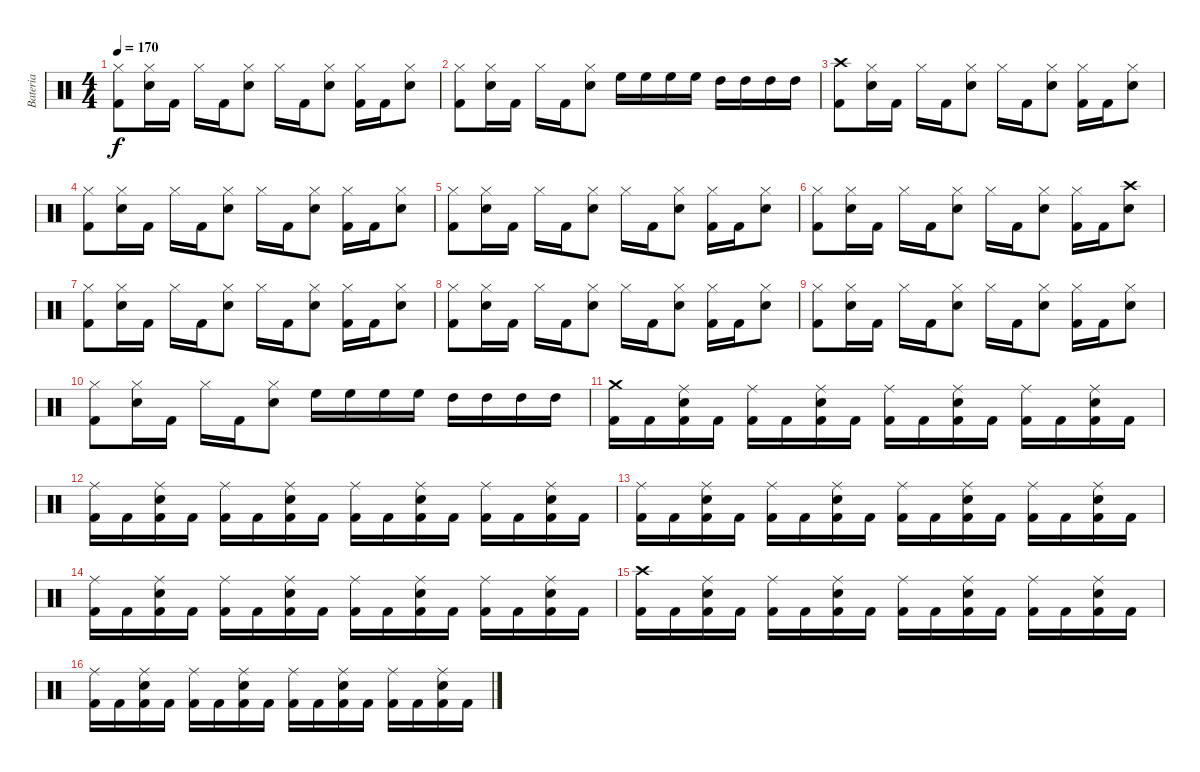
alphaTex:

\track ("Bateria" "Bateria") {instrument percussion}
\staff {score}
\articulation defaults
\ts (4 4)
\tempo 170
\clef neutral
\ks c
("Hi-Hat (closed)" "Kick (hit) 2").8{dy f} ("Hi-Hat (closed)" "Snare (hit) 2").16 "Kick (hit) 2".16 "Hi-Hat (closed)".16 "Kick (hit) 2".16 ("Hi-Hat (closed)" "Snare (hit) 2").8 "Hi-Hat (closed)".16 "Kick (hit) 2".16 ("Hi-Hat (closed)" "Snare (hit) 2").8 ("Hi-Hat (closed)" "Kick (hit) 2").16 "Kick (hit) 2".16 ("Hi-Hat (closed)" "Snare (hit) 2").8 |
("Hi-Hat (closed)" "Kick (hit) 2").8 ("Hi-Hat (closed)" "Snare (hit) 2").16 "Kick (hit) 2".16 "Hi-Hat (closed)".16 "Kick (hit) 2".16 ("Hi-Hat (closed)" "Snare (hit) 2").8 "High Floor Tom (hit)".16 "High Floor Tom (hit)".16 "High Floor Tom (hit)".16 "High Floor Tom (hit)".16 "High Tom (hit)".16 "High Tom (hit)".16 "High Tom (hit)".16 "High Tom (hit)".16 |
("Crash high (hit)" "Kick (hit) 2").8 ("Hi-Hat (closed)" "Snare (hit) 2").16 "Kick (hit) 2".16 "Hi-Hat (closed)".16 "Kick (hit) 2".16 ("Hi-Hat (closed)" "Snare (hit) 2").8 "Hi-Hat (closed)".16 "Kick (hit) 2".16 ("Hi-Hat (closed)" "Snare (hit) 2").8 ("Hi-Hat (closed)" "Kick (hit) 2").16 "Kick (hit) 2".16 ("Hi-Hat (closed)" "Snare (hit) 2").8 |
("Hi-Hat (closed)" "Kick (hit) 2").8 ("Hi-Hat (closed)" "Snare (hit) 2").16 "Kick (hit) 2".16 "Hi-Hat (closed)".16 "Kick (hit) 2".16 ("Hi-Hat (closed)" "Snare (hit) 2").8 "Hi-Hat (closed)".16 "Kick (hit) 2".16 ("Hi-Hat (closed)" "Snare (hit) 2").8 ("Hi-Hat (closed)" "Kick (hit) 2").16 "Kick (hit) 2".16 ("Hi-Hat (closed)" "Snare (hit) 2").8 |
("Hi-Hat (closed)" "Kick (hit) 2").8 ("Hi-Hat (closed)" "Snare (hit) 2").16 "Kick (hit) 2".16 "Hi-Hat (closed)".16 "Kick (hit) 2".16 ("Hi-Hat (closed)" "Snare (hit) 2").8 "Hi-Hat (closed)".16 "Kick (hit) 2".16 ("Hi-Hat (closed)" "Snare (hit) 2").8 ("Hi-Hat (closed)" "Kick (hit) 2").16 "Kick (hit) 2".16 ("Hi-Hat (closed)" "Snare (hit) 2").8 |
("Hi-Hat (closed)" "Kick (hit) 2").8 ("Hi-Hat (closed)" "Snare (hit) 2").16 "Kick (hit) 2".16 "Hi-Hat (closed)".16 "Kick (hit) 2".16 ("Hi-Hat (closed)" "Snare (hit) 2").8 "Hi-Hat (closed)".16 "Kick (hit) 2".16 ("Hi-Hat (closed)" "Snare (hit) 2").8 ("Hi-Hat (closed)" "Kick (hit) 2").16 "Kick (hit) 2".16 ("Crash high (hit)" "Snare (hit) 2").8 |
("Hi-Hat (closed)" "Kick (hit) 2").8 ("Hi-Hat (closed)" "Snare (hit) 2").16 "Kick (hit) 2".16 "Hi-Hat (closed)".16 "Kick (hit) 2".16 ("Hi-Hat (closed)" "Snare (hit) 2").8 "Hi-Hat (closed)".16 "Kick (hit) 2".16 ("Hi-Hat (closed)" "Snare (hit) 2").8 ("Hi-Hat (closed)" "Kick (hit) 2").16 "Kick (hit) 2".16 ("Hi-Hat (closed)" "Snare (hit) 2").8 |
("Hi-Hat (closed)" "Kick (hit) 2").8 ("Hi-Hat (closed)" "Snare (hit) 2").16 "Kick (hit) 2".16 "Hi-Hat (closed)".16 "Kick (hit) 2".16 ("Hi-Hat (closed)" "Snare (hit) 2").8 "Hi-Hat (closed)".16 "Kick (hit) 2".16 ("Hi-Hat (closed)" "Snare (hit) 2").8 ("Hi-Hat (closed)" "Kick (hit) 2").16 "Kick (hit) 2".16 ("Hi-Hat (closed)" "Snare (hit) 2").8 |
("Hi-Hat (closed)" "Kick (hit) 2").8 ("Hi-Hat (closed)" "Snare (hit) 2").16 "Kick (hit) 2".16 "Hi-Hat (closed)".16 "Kick (hit) 2".16 ("Hi-Hat (closed)" "Snare (hit) 2").8 "Hi-Hat (closed)".16 "Kick (hit) 2".16 ("Hi-Hat (closed)" "Snare (hit) 2").8 ("Hi-Hat (closed)" "Kick (hit) 2").16 "Kick (hit) 2".16 ("Hi-Hat (closed)" "Snare (hit) 2").8 |
("Hi-Hat (closed)" "Kick (hit) 2").8 ("Hi-Hat (closed)" "Snare (hit) 2").16 "Kick (hit) 2".16 "Hi-Hat (closed)".16 "Kick (hit) 2".16 ("Hi-Hat (closed)" "Snare (hit) 2").8 "High Floor Tom (hit)".16 "High Floor Tom (hit)".16 "High Floor Tom (hit)".16 "High Floor Tom (hit)".16 "High Tom (hit)".16 "High Tom (hit)".16 "High Tom (hit)".16 "High Tom (hit)".16 |
("Crash medium (hit)" "Kick (hit) 2").16 "Kick (hit) 2".16 ("Ride (middle)" "Kick (hit) 2" "Snare (hit) 2").16 "Kick (hit) 2".16 ("Ride (middle)" "Kick (hit) 2").16 "Kick (hit) 2".16 ("Ride (middle)" "Kick (hit) 2" "Snare (hit) 2").16 "Kick (hit) 2".16 ("Ride (middle)" "Kick (hit) 2").16 "Kick (hit) 2".16 ("Ride (middle)" "Kick (hit) 2" "Snare (hit) 2").16 "Kick (hit) 2".16 ("Ride (middle)" "Kick (hit) 2").16 "Kick (hit) 2".16 ("Ride (middle)" "Kick (hit) 2" "Snare (hit) 2").16 "Kick (hit) 2".16 |
("Ride (middle)" "Kick (hit) 2").16 "Kick (hit) 2".16 ("Ride (middle)" "Kick (hit) 2" "Snare (hit) 2").16 "Kick (hit) 2".16 ("Ride (middle)" "Kick (hit) 2").16 "Kick (hit) 2".16 ("Ride (middle)" "Kick (hit) 2" "Snare (hit) 2").16 "Kick (hit) 2".16 ("Ride (middle)" "Kick (hit) 2").16 "Kick (hit) 2".16 ("Ride (middle)" "Kick (hit) 2" "Snare (hit) 2").16 "Kick (hit) 2".16 ("Ride (middle)" "Kick (hit) 2").16 "Kick (hit) 2".16 ("Ride (middle)" "Kick (hit) 2" "Snare (hit) 2").16 "Kick (hit) 2".16 |
("Ride (middle)" "Kick (hit) 2").16 "Kick (hit) 2".16 ("Ride (middle)" "Kick (hit) 2" "Snare (hit) 2").16 "Kick (hit) 2".16 ("Ride (middle)" "Kick (hit) 2").16 "Kick (hit) 2".16 ("Ride (middle)" "Kick (hit) 2" "Snare (hit) 2").16 "Kick (hit) 2".16 ("Ride (middle)" "Kick (hit) 2").16 "Kick (hit) 2".16 ("Ride (middle)" "Kick (hit) 2" "Snare (hit) 2").16 "Kick (hit) 2".16 ("Ride (middle)" "Kick (hit) 2").16 "Kick (hit) 2".16 ("Ride (middle)" "Kick (hit) 2" "Snare (hit) 2").16 "Kick (hit) 2".16 |
("Ride (middle)" "Kick (hit) 2").16 "Kick (hit) 2".16 ("Ride (middle)" "Kick (hit) 2" "Snare (hit) 2").16 "Kick (hit) 2".16 ("Ride (middle)" "Kick (hit) 2").16 "Kick (hit) 2".16 ("Ride (middle)" "Kick (hit) 2" "Snare (hit) 2").16 "Kick (hit) 2".16 ("Ride (middle)" "Kick (hit) 2").16 "Kick (hit) 2".16 ("Ride (middle)" "Kick (hit) 2" "Snare (hit) 2").16 "Kick (hit) 2".16 ("Ride (middle)" "Kick (hit) 2").16 "Kick (hit) 2".16 ("Ride (middle)" "Kick (hit) 2" "Snare (hit) 2").16 "Kick (hit) 2".16 |
("Crash high (hit)" "Kick (hit) 2").16 "Kick (hit) 2".16 ("Ride (middle)" "Kick (hit) 2" "Snare (hit) 2").16 "Kick (hit) 2".16 ("Ride (middle)" "Kick (hit) 2").16 "Kick (hit) 2".16 ("Ride (middle)" "Kick (hit) 2" "Snare (hit) 2").16 "Kick (hit) 2".16 ("Ride (middle)" "Kick (hit) 2").16 "Kick (hit) 2".16 ("Ride (middle)" "Kick (hit) 2" "Snare (hit) 2").16 "Kick (hit) 2".16 ("Ride (middle)" "Kick (hit) 2").16 "Kick (hit) 2".16 ("Ride (middle)" "Kick (hit) 2" "Snare (hit) 2").16 "Kick (hit) 2".16 |
("Ride (middle)" "Kick (hit) 2").16 "Kick (hit) 2".16 ("Ride (middle)" "Kick (hit) 2" "Snare (hit) 2").16 "Kick (hit) 2".16 ("Ride (middle)" "Kick (hit) 2").16 "Kick (hit) 2".16 ("Ride (middle)" "Kick (hit) 2" "Snare (hit) 2").16 "Kick (hit) 2".16 ("Ride (middle)" "Kick (hit) 2").16 "Kick (hit) 2".16 ("Ride (middle)" "Kick (hit) 2" "Snare (hit) 2").16 "Kick (hit) 2".16 ("Ride (middle)" "Kick (hit) 2").16 "Kick (hit) 2".16 ("Ride (middle)" "Kick (hit) 2" "Snare (hit) 2").16 "Kick (hit) 2".16
